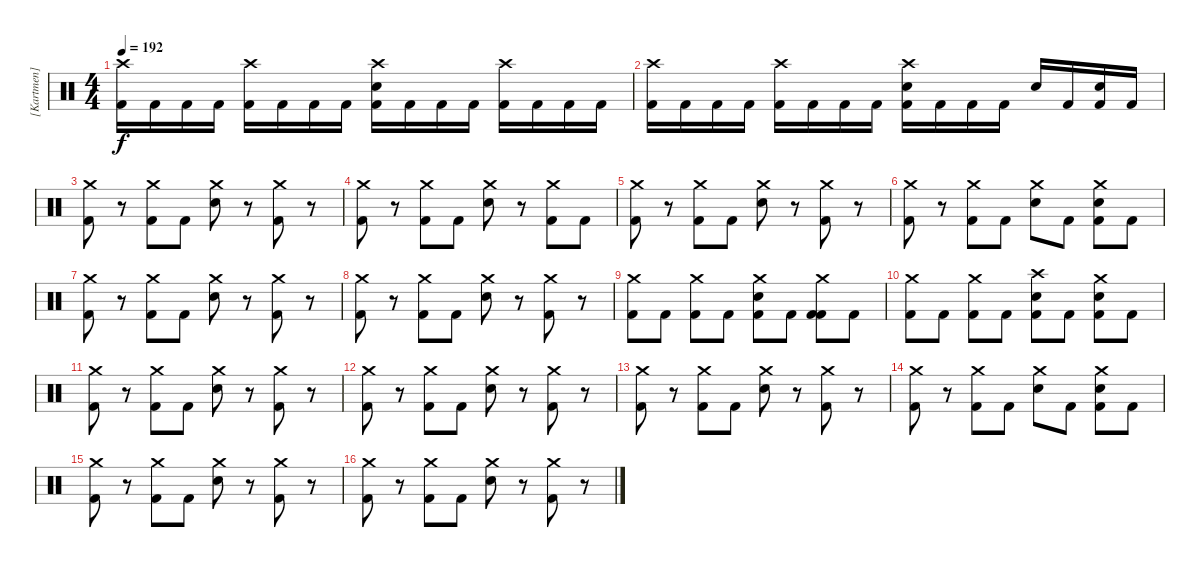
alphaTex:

\track ("[Kartmen] - Drums" "[Kartmen] ") {instrument percussion}
\staff {score}
\articulation defaults
\ts (4 4)
\tempo 192
\clef neutral
\ks c
("Crash high (hit)" "Kick (hit) 2").16{dy f} "Kick (hit) 2".16 "Kick (hit) 2".16 "Kick (hit) 2".16 ("Crash high (hit)" "Kick (hit) 2").16 "Kick (hit) 2".16 "Kick (hit) 2".16 "Kick (hit) 2".16 ("Crash high (hit)" "Snare (hit) 2" "Kick (hit) 2").16 "Kick (hit) 2".16 "Kick (hit) 2".16 "Kick (hit) 2".16 ("Crash high (hit)" "Kick (hit) 2").16 "Kick (hit) 2".16 "Kick (hit) 2".16 "Kick (hit) 2".16 |
("Crash high (hit)" "Kick (hit) 2").16 "Kick (hit) 2".16 "Kick (hit) 2".16 "Kick (hit) 2".16 ("Crash high (hit)" "Kick (hit) 2").16 "Kick (hit) 2".16 "Kick (hit) 2".16 "Kick (hit) 2".16 ("Crash high (hit)" "Snare (hit) 2" "Kick (hit) 2").16 "Kick (hit) 2".16 "Kick (hit) 2".16 "Kick (hit) 2".16 "Snare (hit) 2".16 "Kick (hit) 2".16 ("Snare (hit) 2" "Kick (hit) 2").16 "Kick (hit) 2".16 |
("Crash medium (hit)" "Kick (hit) 2").8 r.8 ("Crash medium (hit)" "Kick (hit) 2").8 "Kick (hit) 2".8 ("Crash medium (hit)" "Snare (hit) 2").8 r.8 ("Crash medium (hit)" "Kick (hit) 2").8 r.8 |
("Crash medium (hit)" "Kick (hit) 2").8 r.8 ("Crash medium (hit)" "Kick (hit) 2").8 "Kick (hit) 2".8 ("Crash medium (hit)" "Snare (hit) 2").8 r.8 ("Crash medium (hit)" "Kick (hit) 2").8 "Kick (hit) 2".8 |
("Crash medium (hit)" "Kick (hit) 2").8 r.8 ("Crash medium (hit)" "Kick (hit) 2").8 "Kick (hit) 2".8 ("Crash medium (hit)" "Snare (hit) 2").8 r.8 ("Crash medium (hit)" "Kick (hit) 2").8 r.8 |
("Crash medium (hit)" "Kick (hit) 2").8 r.8 ("Crash medium (hit)" "Kick (hit) 2").8 "Kick (hit) 2".8 ("Crash medium (hit)" "Snare (hit) 2").8 "Kick (hit) 2".8 ("Crash medium (hit)" "Kick (hit) 2" "Snare (hit) 2").8 "Kick (hit) 2".8 |
("Crash medium (hit)" "Kick (hit) 2").8 r.8 ("Crash medium (hit)" "Kick (hit) 2").8 "Kick (hit) 2".8 ("Crash medium (hit)" "Snare (hit) 2").8 r.8 ("Crash medium (hit)" "Kick (hit) 2").8 r.8 |
("Crash medium (hit)" "Kick (hit) 2").8 r.8 ("Crash medium (hit)" "Kick (hit) 2").8 "Kick (hit) 2".8 ("Crash medium (hit)" "Snare (hit) 2").8 r.8 ("Crash medium (hit)" "Kick (hit) 2").8 r.8 |
("Crash medium (hit)" "Kick (hit) 2").8 "Kick (hit) 2".8 ("Crash medium (hit)" "Kick (hit) 2").8 "Kick (hit) 2".8 ("Crash medium (hit)" "Kick (hit) 2" "Snare (hit) 2").8 "Kick (hit) 2".8 ("Crash medium (hit)" "Kick (hit) 2" "Kick (hit) 2").8 "Kick (hit) 2".8 |
("Crash medium (hit)" "Kick (hit) 2").8 "Kick (hit) 2".8 ("Crash medium (hit)" "Kick (hit) 2").8 "Kick (hit) 2".8 ("Crash high (hit)" "Kick (hit) 2"{tr (36 16)} "Snare (hit) 2").8 "Kick (hit) 2"{tr (36 16)}.8 ("Crash medium (hit)" "Kick (hit) 2"{tr (36 16)} "Snare (hit) 2").8 "Kick (hit) 2"{tr (36 16)}.8 |
("Crash medium (hit)" "Kick (hit) 2").8 r.8 ("Crash medium (hit)" "Kick (hit) 2").8 "Kick (hit) 2".8 ("Crash medium (hit)" "Snare (hit) 2").8 r.8 ("Crash medium (hit)" "Kick (hit) 2").8 r.8 |
("Crash medium (hit)" "Kick (hit) 2").8 r.8 ("Crash medium (hit)" "Kick (hit) 2").8 "Kick (hit) 2".8 ("Crash medium (hit)" "Snare (hit) 2").8 r.8 ("Crash medium (hit)" "Kick (hit) 2").8 r.8 |
("Crash medium (hit)" "Kick (hit) 2").8 r.8 ("Crash medium (hit)" "Kick (hit) 2").8 "Kick (hit) 2".8 ("Crash medium (hit)" "Snare (hit) 2").8 r.8 ("Crash medium (hit)" "Kick (hit) 2").8 r.8 |
("Crash medium (hit)" "Kick (hit) 2").8 r.8 ("Crash medium (hit)" "Kick (hit) 2").8 "Kick (hit) 2".8 ("Crash medium (hit)" "Snare (hit) 2").8 "Kick (hit) 2".8 ("Crash medium (hit)" "Kick (hit) 2" "Snare (hit) 2").8 "Kick (hit) 2".8 |
("Crash medium (hit)" "Kick (hit) 2").8 r.8 ("Crash medium (hit)" "Kick (hit) 2").8 "Kick (hit) 2".8 ("Crash medium (hit)" "Snare (hit) 2").8 r.8 ("Crash medium (hit)" "Kick (hit) 2").8 r.8 |
("Crash medium (hit)" "Kick (hit) 2").8 r.8 ("Crash medium (hit)" "Kick (hit) 2").8 "Kick (hit) 2".8 ("Crash medium (hit)" "Snare (hit) 2").8 r.8 ("Crash medium (hit)" "Kick (hit) 2").8 r.8
